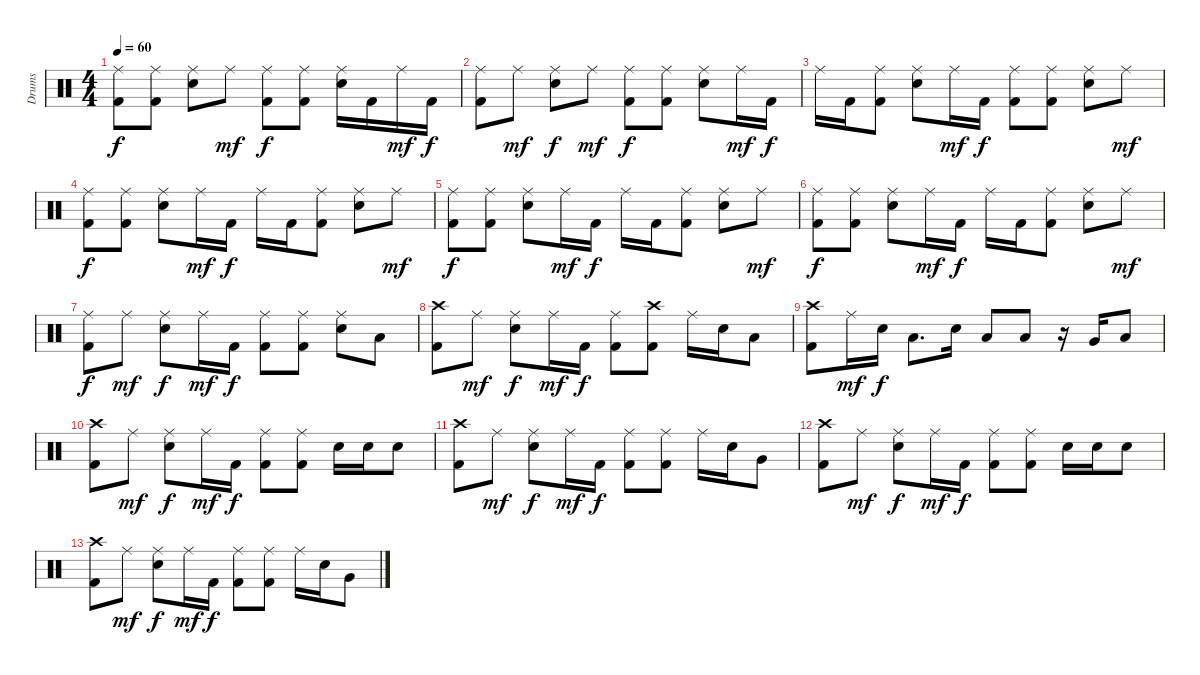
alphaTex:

\track ("Drums" "Drums") {instrument percussion}
\staff {score}
\articulation defaults
\ts (4 4)
\tempo 60
\clef neutral
\ks c
("Ride (middle)" "Kick (hit) 2").8{dy f} ("Ride (middle)" "Kick (hit) 2").8 ("Ride (middle)" "Electric Snare (hit)").8 "Ride (middle)".8{dy mf} ("Ride (middle)" "Kick (hit) 2").8{dy f} ("Ride (middle)" "Kick (hit) 2").8 ("Ride (middle)" "Electric Snare (hit)").16 "Kick (hit) 2".16 "Ride (middle)".16{dy mf} "Kick (hit) 2".16{dy f} |
("Ride (middle)" "Kick (hit) 2").8 "Ride (middle)".8{dy mf} ("Ride (middle)" "Electric Snare (hit)").8{dy f} "Ride (middle)".8{dy mf} ("Ride (middle)" "Kick (hit) 2").8{dy f} ("Ride (middle)" "Kick (hit) 2").8 ("Ride (middle)" "Electric Snare (hit)").8 "Ride (middle)".16{dy mf} "Kick (hit) 2".16{dy f} |
"Ride (middle)".16 "Kick (hit) 2".16 ("Ride (middle)" "Kick (hit) 2").8 ("Ride (middle)" "Electric Snare (hit)").8 "Ride (middle)".16{dy mf} "Kick (hit) 2".16{dy f} ("Ride (middle)" "Kick (hit) 2").8 ("Ride (middle)" "Kick (hit) 2").8 ("Ride (middle)" "Electric Snare (hit)").8 "Ride (middle)".8{dy mf} |
("Ride (middle)" "Kick (hit) 2").8{dy f} ("Ride (middle)" "Kick (hit) 2").8 ("Ride (middle)" "Electric Snare (hit)").8 "Ride (middle)".16{dy mf} "Kick (hit) 2".16{dy f} "Ride (middle)".16 "Kick (hit) 2".16 ("Ride (middle)" "Kick (hit) 2").8 ("Ride (middle)" "Electric Snare (hit)").8 "Ride (middle)".8{dy mf} |
("Ride (middle)" "Kick (hit) 2").8{dy f} ("Ride (middle)" "Kick (hit) 2").8 ("Ride (middle)" "Electric Snare (hit)").8 "Ride (middle)".16{dy mf} "Kick (hit) 2".16{dy f} "Ride (middle)".16 "Kick (hit) 2".16 ("Ride (middle)" "Kick (hit) 2").8 ("Ride (middle)" "Electric Snare (hit)").8 "Ride (middle)".8{dy mf} |
("Ride (middle)" "Kick (hit) 2").8{dy f} ("Ride (middle)" "Kick (hit) 2").8 ("Ride (middle)" "Electric Snare (hit)").8 "Ride (middle)".16{dy mf} "Kick (hit) 2".16{dy f} "Ride (middle)".16 "Kick (hit) 2".16 ("Ride (middle)" "Kick (hit) 2").8 ("Ride (middle)" "Electric Snare (hit)").8 "Ride (middle)".8{dy mf} |
("Ride (middle)" "Kick (hit) 2").8{dy f} "Ride (middle)".8{dy mf} ("Ride (middle)" "Electric Snare (hit)").8{dy f} "Ride (middle)".16{dy mf} "Kick (hit) 2".16{dy f} ("Ride (middle)" "Kick (hit) 2").8 ("Ride (middle)" "Kick (hit) 2").8 ("Ride (middle)" "Electric Snare (hit)").8 "Low Tom (hit)".8 |
("Crash high (hit)" "Kick (hit) 2").8 "Ride (middle)".8{dy mf} ("Ride (middle)" "Electric Snare (hit)").8{dy f} "Ride (middle)".16{dy mf} "Kick (hit) 2".16{dy f} ("Ride (middle)" "Kick (hit) 2").8 ("Crash high (hit)" "Kick (hit) 2").8 "Ride (middle)".16 "Electric Snare (hit)".16 "Low Tom (hit)".8 |
("Crash high (hit)" "Kick (hit) 2").8 "Ride (middle)".16{dy mf} "Electric Snare (hit)".16{dy f} "Low Tom (hit)".8{d} "Electric Snare (hit)".16 "Low Tom (hit)".8 "Low Tom (hit)".8 r.16 "Very Low Tom (hit)".16 "Low Floor Tom (hit)".8 |
("Crash high (hit)" "Kick (hit) 2").8 "Ride (middle)".8{dy mf} ("Ride (middle)" "Electric Snare (hit)").8{dy f} "Ride (middle)".16{dy mf} "Kick (hit) 2".16{dy f} ("Ride (middle)" "Kick (hit) 2").8 ("Ride (middle)" "Kick (hit) 2").8 "Electric Snare (hit)".16 "Electric Snare (hit)".16 "Electric Snare (hit)".8 |
("Crash high (hit)" "Kick (hit) 2").8 "Ride (middle)".8{dy mf} ("Ride (middle)" "Electric Snare (hit)").8{dy f} "Ride (middle)".16{dy mf} "Kick (hit) 2".16{dy f} ("Ride (middle)" "Kick (hit) 2").8 ("Ride (middle)" "Kick (hit) 2").8 "Ride (middle)".16 "Electric Snare (hit)".16 "Very Low Tom (hit)".8 |
("Crash high (hit)" "Kick (hit) 2").8 "Ride (middle)".8{dy mf} ("Ride (middle)" "Electric Snare (hit)").8{dy f} "Ride (middle)".16{dy mf} "Kick (hit) 2".16{dy f} ("Ride (middle)" "Kick (hit) 2").8 ("Ride (middle)" "Kick (hit) 2").8 "Electric Snare (hit)".16 "Electric Snare (hit)".16 "Electric Snare (hit)".8 |
("Crash high (hit)" "Kick (hit) 2").8 "Ride (middle)".8{dy mf} ("Ride (middle)" "Electric Snare (hit)").8{dy f} "Ride (middle)".16{dy mf} "Kick (hit) 2".16{dy f} ("Ride (middle)" "Kick (hit) 2").8 ("Ride (middle)" "Kick (hit) 2").8 "Ride (middle)".16 "Electric Snare (hit)".16 "Very Low Tom (hit)".8
